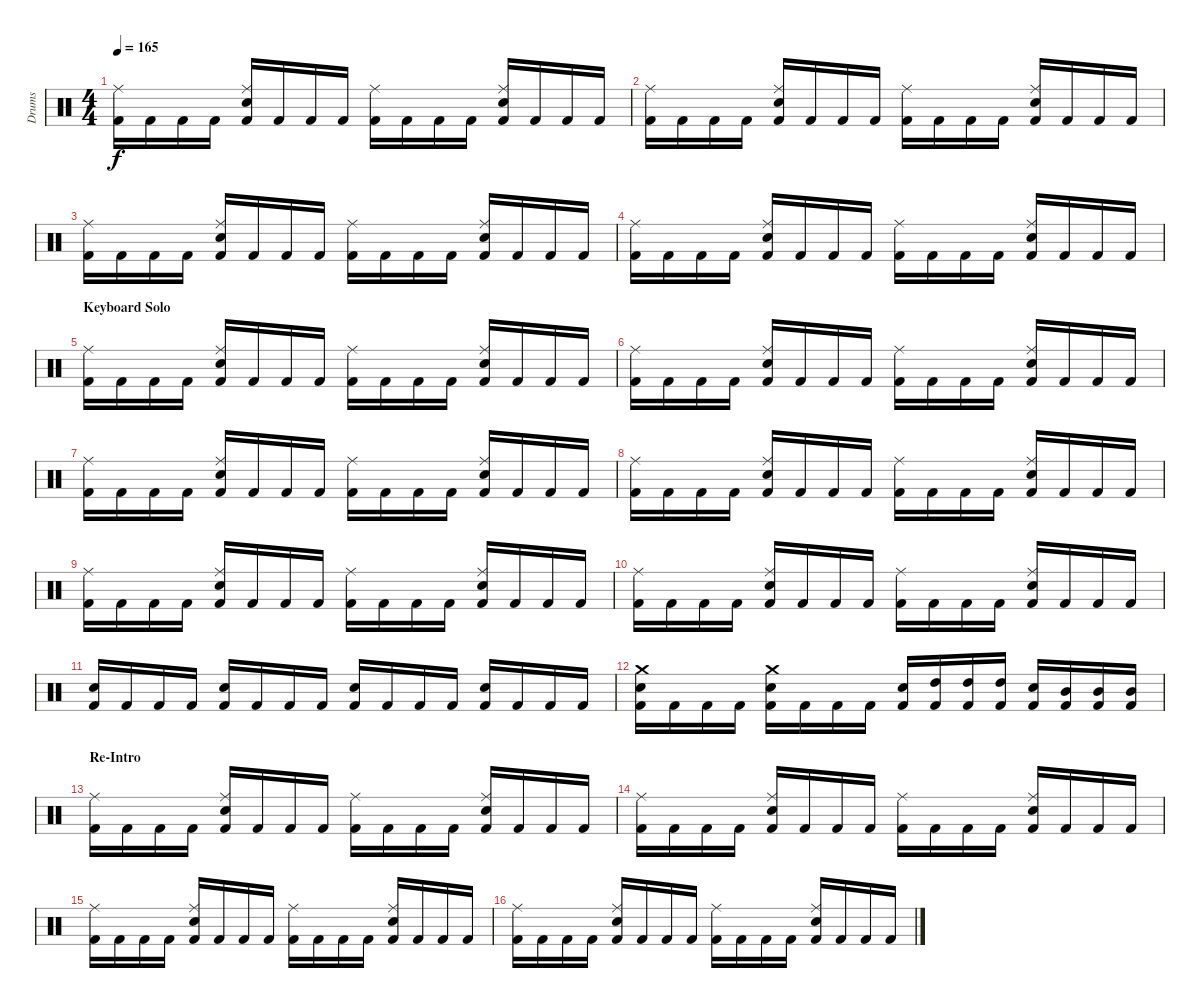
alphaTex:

\track ("Drums" "Drums") {instrument percussion}
\staff {score}
\articulation defaults
\ts (4 4)
\tempo 165
\clef neutral
\ks c
("Kick (hit) 2" "Ride (middle)").16{dy f} "Kick (hit) 2".16 "Kick (hit) 2".16 "Kick (hit) 2".16 ("Kick (hit) 2" "Ride (middle)" "Electric Snare (hit)").16 "Kick (hit) 2".16 "Kick (hit) 2".16 "Kick (hit) 2".16 ("Kick (hit) 2" "Ride (middle)").16 "Kick (hit) 2".16 "Kick (hit) 2".16 "Kick (hit) 2".16 ("Kick (hit) 2" "Ride (middle)" "Electric Snare (hit)").16 "Kick (hit) 2".16 "Kick (hit) 2".16 "Kick (hit) 2".16 |
("Kick (hit) 2" "Ride (middle)").16 "Kick (hit) 2".16 "Kick (hit) 2".16 "Kick (hit) 2".16 ("Kick (hit) 2" "Ride (middle)" "Electric Snare (hit)").16 "Kick (hit) 2".16 "Kick (hit) 2".16 "Kick (hit) 2".16 ("Kick (hit) 2" "Ride (middle)").16 "Kick (hit) 2".16 "Kick (hit) 2".16 "Kick (hit) 2".16 ("Kick (hit) 2" "Ride (middle)" "Electric Snare (hit)").16 "Kick (hit) 2".16 "Kick (hit) 2".16 "Kick (hit) 2".16 |
("Kick (hit) 2" "Ride (middle)").16 "Kick (hit) 2".16 "Kick (hit) 2".16 "Kick (hit) 2".16 ("Kick (hit) 2" "Ride (middle)" "Electric Snare (hit)").16 "Kick (hit) 2".16 "Kick (hit) 2".16 "Kick (hit) 2".16 ("Kick (hit) 2" "Ride (middle)").16 "Kick (hit) 2".16 "Kick (hit) 2".16 "Kick (hit) 2".16 ("Kick (hit) 2" "Ride (middle)" "Electric Snare (hit)").16 "Kick (hit) 2".16 "Kick (hit) 2".16 "Kick (hit) 2".16 |
("Kick (hit) 2" "Ride (middle)").16 "Kick (hit) 2".16 "Kick (hit) 2".16 "Kick (hit) 2".16 ("Kick (hit) 2" "Ride (middle)" "Electric Snare (hit)").16 "Kick (hit) 2".16 "Kick (hit) 2".16 "Kick (hit) 2".16 ("Kick (hit) 2" "Ride (middle)").16 "Kick (hit) 2".16 "Kick (hit) 2".16 "Kick (hit) 2".16 ("Kick (hit) 2" "Ride (middle)" "Electric Snare (hit)").16 "Kick (hit) 2".16 "Kick (hit) 2".16 "Kick (hit) 2".16 |
\section ("" "Keyboard Solo")
("Kick (hit) 2" "Ride (middle)").16 "Kick (hit) 2".16 "Kick (hit) 2".16 "Kick (hit) 2".16 ("Kick (hit) 2" "Electric Snare (hit)" "Ride (middle)").16 "Kick (hit) 2".16 "Kick (hit) 2".16 "Kick (hit) 2".16 ("Kick (hit) 2" "Ride (middle)").16 "Kick (hit) 2".16 "Kick (hit) 2".16 "Kick (hit) 2".16 ("Kick (hit) 2" "Electric Snare (hit)" "Ride (middle)").16 "Kick (hit) 2".16 "Kick (hit) 2".16 "Kick (hit) 2".16 |
("Kick (hit) 2" "Ride (middle)").16 "Kick (hit) 2".16 "Kick (hit) 2".16 "Kick (hit) 2".16 ("Kick (hit) 2" "Electric Snare (hit)" "Ride (middle)").16 "Kick (hit) 2".16 "Kick (hit) 2".16 "Kick (hit) 2".16 ("Kick (hit) 2" "Ride (middle)").16 "Kick (hit) 2".16 "Kick (hit) 2".16 "Kick (hit) 2".16 ("Kick (hit) 2" "Electric Snare (hit)" "Ride (middle)").16 "Kick (hit) 2".16 "Kick (hit) 2".16 "Kick (hit) 2".16 |
("Kick (hit) 2" "Ride (middle)").16 "Kick (hit) 2".16 "Kick (hit) 2".16 "Kick (hit) 2".16 ("Kick (hit) 2" "Electric Snare (hit)" "Ride (middle)").16 "Kick (hit) 2".16 "Kick (hit) 2".16 "Kick (hit) 2".16 ("Kick (hit) 2" "Ride (middle)").16 "Kick (hit) 2".16 "Kick (hit) 2".16 "Kick (hit) 2".16 ("Kick (hit) 2" "Electric Snare (hit)" "Ride (middle)").16 "Kick (hit) 2".16 "Kick (hit) 2".16 "Kick (hit) 2".16 |
("Kick (hit) 2" "Ride (middle)").16 "Kick (hit) 2".16 "Kick (hit) 2".16 "Kick (hit) 2".16 ("Kick (hit) 2" "Electric Snare (hit)" "Ride (middle)").16 "Kick (hit) 2".16 "Kick (hit) 2".16 "Kick (hit) 2".16 ("Kick (hit) 2" "Ride (middle)").16 "Kick (hit) 2".16 "Kick (hit) 2".16 "Kick (hit) 2".16 ("Kick (hit) 2" "Electric Snare (hit)" "Ride (middle)").16 "Kick (hit) 2".16 "Kick (hit) 2".16 "Kick (hit) 2".16 |
("Kick (hit) 2" "Ride (middle)").16 "Kick (hit) 2".16 "Kick (hit) 2".16 "Kick (hit) 2".16 ("Kick (hit) 2" "Electric Snare (hit)" "Ride (middle)").16 "Kick (hit) 2".16 "Kick (hit) 2".16 "Kick (hit) 2".16 ("Kick (hit) 2" "Ride (middle)").16 "Kick (hit) 2".16 "Kick (hit) 2".16 "Kick (hit) 2".16 ("Kick (hit) 2" "Electric Snare (hit)" "Ride (middle)").16 "Kick (hit) 2".16 "Kick (hit) 2".16 "Kick (hit) 2".16 |
("Kick (hit) 2" "Ride (middle)").16 "Kick (hit) 2".16 "Kick (hit) 2".16 "Kick (hit) 2".16 ("Kick (hit) 2" "Electric Snare (hit)" "Ride (middle)").16 "Kick (hit) 2".16 "Kick (hit) 2".16 "Kick (hit) 2".16 ("Kick (hit) 2" "Ride (middle)").16 "Kick (hit) 2".16 "Kick (hit) 2".16 "Kick (hit) 2".16 ("Kick (hit) 2" "Electric Snare (hit)" "Ride (middle)").16 "Kick (hit) 2".16 "Kick (hit) 2".16 "Kick (hit) 2".16 |
("Kick (hit) 2" "Electric Snare (hit)").16 "Kick (hit) 2".16 "Kick (hit) 2".16 "Kick (hit) 2".16 ("Kick (hit) 2" "Electric Snare (hit)").16 "Kick (hit) 2".16 "Kick (hit) 2".16 "Kick (hit) 2".16 ("Kick (hit) 2" "Electric Snare (hit)").16 "Kick (hit) 2".16 "Kick (hit) 2".16 "Kick (hit) 2".16 ("Kick (hit) 2" "Electric Snare (hit)").16 "Kick (hit) 2".16 "Kick (hit) 2".16 "Kick (hit) 2".16 |
("Kick (hit) 2" "Electric Snare (hit)" "Crash medium (hit)").16 "Kick (hit) 2".16 "Kick (hit) 2".16 "Kick (hit) 2".16 ("Kick (hit) 2" "Electric Snare (hit)" "Crash medium (hit)").16 "Kick (hit) 2".16 "Kick (hit) 2".16 "Kick (hit) 2".16 ("Kick (hit) 2" "Electric Snare (hit)").16 ("Kick (hit) 2" "High Tom (hit)").16 ("Kick (hit) 2" "High Tom (hit)").16 ("Kick (hit) 2" "High Tom (hit)").16 ("Kick (hit) 2" "Electric Snare (hit)").16 ("Kick (hit) 2" "Mid Tom (hit)").16 ("Kick (hit) 2" "Mid Tom (hit)").16 ("Kick (hit) 2" "Mid Tom (hit)").16 |
\section ("" "Re-Intro")
("Kick (hit) 2" "Ride (middle)").16 "Kick (hit) 2".16 "Kick (hit) 2".16 "Kick (hit) 2".16 ("Kick (hit) 2" "Electric Snare (hit)" "Ride (middle)").16 "Kick (hit) 2".16 "Kick (hit) 2".16 "Kick (hit) 2".16 ("Kick (hit) 2" "Ride (middle)").16 "Kick (hit) 2".16 "Kick (hit) 2".16 "Kick (hit) 2".16 ("Kick (hit) 2" "Electric Snare (hit)" "Ride (middle)").16 "Kick (hit) 2".16 "Kick (hit) 2".16 "Kick (hit) 2".16 |
("Kick (hit) 2" "Ride (middle)").16 "Kick (hit) 2".16 "Kick (hit) 2".16 "Kick (hit) 2".16 ("Kick (hit) 2" "Electric Snare (hit)" "Ride (middle)").16 "Kick (hit) 2".16 "Kick (hit) 2".16 "Kick (hit) 2".16 ("Kick (hit) 2" "Ride (middle)").16 "Kick (hit) 2".16 "Kick (hit) 2".16 "Kick (hit) 2".16 ("Kick (hit) 2" "Electric Snare (hit)" "Ride (middle)").16 "Kick (hit) 2".16 "Kick (hit) 2".16 "Kick (hit) 2".16 |
("Kick (hit) 2" "Ride (middle)").16 "Kick (hit) 2".16 "Kick (hit) 2".16 "Kick (hit) 2".16 ("Kick (hit) 2" "Electric Snare (hit)" "Ride (middle)").16 "Kick (hit) 2".16 "Kick (hit) 2".16 "Kick (hit) 2".16 ("Kick (hit) 2" "Ride (middle)").16 "Kick (hit) 2".16 "Kick (hit) 2".16 "Kick (hit) 2".16 ("Kick (hit) 2" "Electric Snare (hit)" "Ride (middle)").16 "Kick (hit) 2".16 "Kick (hit) 2".16 "Kick (hit) 2".16 |
("Kick (hit) 2" "Ride (middle)").16 "Kick (hit) 2".16 "Kick (hit) 2".16 "Kick (hit) 2".16 ("Kick (hit) 2" "Electric Snare (hit)" "Ride (middle)").16 "Kick (hit) 2".16 "Kick (hit) 2".16 "Kick (hit) 2".16 ("Kick (hit) 2" "Ride (middle)").16 "Kick (hit) 2".16 "Kick (hit) 2".16 "Kick (hit) 2".16 ("Kick (hit) 2" "Electric Snare (hit)" "Ride (middle)").16 "Kick (hit) 2".16 "Kick (hit) 2".16 "Kick (hit) 2".16
